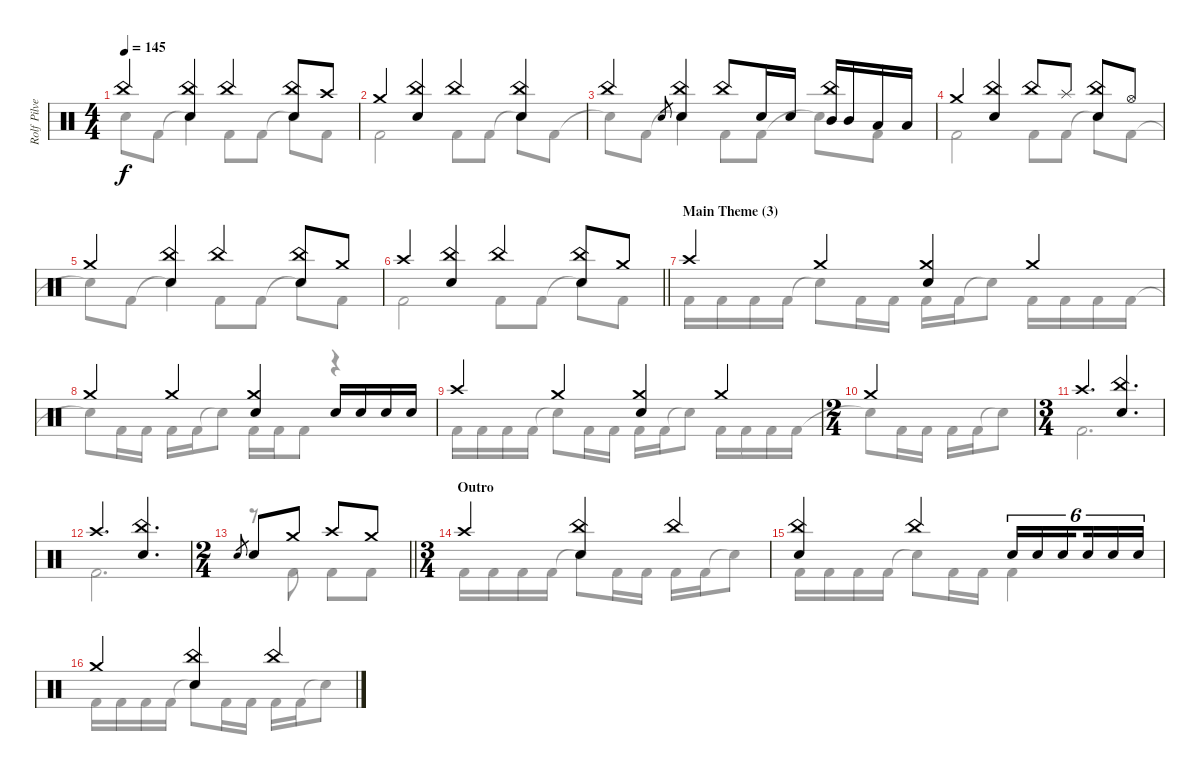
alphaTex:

\track ("Rolf Pilve - drums" "Rolf Pilve") {instrument percussion}
\staff {score}
\articulation defaults
\voice
\ts (4 4)
\tempo 145
\clef neutral
\ks aminor "China (hit)".4{dy f}
("China (hit)" "Electric Snare (hit)").4 "China (hit)".4 ("China (hit)" "Electric Snare (hit)").8 "Crash high (hit)".8 |
"Crash medium (hit)".4 ("China (hit)" "Electric Snare (hit)").4 "China (hit)".4 ("China (hit)" "Electric Snare (hit)").4 |
"China (hit)".4 "Electric Snare (hit)".8{gr} ("Electric Snare (hit)" "China (hit)").4 "China (hit)".8 "Electric Snare (hit)".16 "Electric Snare (hit)".16 ("Mid Tom (hit)" "China (hit)").16 "Mid Tom (hit)".16 "Low Tom (hit)".16 "Low Tom (hit)".16 |
"Crash medium (hit)".4 ("Electric Snare (hit)" "China (hit)").4 "China (hit)".8 "Splash (hit)".8 ("Electric Snare (hit)" "China (hit)").8 "Hi-Hat (open)".8 |
"Crash medium (hit)".4 ("China (hit)" "Electric Snare (hit)").4 "China (hit)".4 ("China (hit)" "Electric Snare (hit)").8 "Crash medium (hit)".8 |
\barLineRight lightlight "Crash high (hit)".4
("China (hit)" "Electric Snare (hit)").4 "China (hit)".4 ("China (hit)" "Electric Snare (hit)").8 "Crash medium (hit)".8 |
\section ("" "Main Theme (3)")
"Crash high (hit)".4 "Crash medium (hit)".4 ("Crash medium (hit)" "Electric Snare (hit)").4 "Crash medium (hit)".4 |
"Crash medium (hit)".4 "Crash medium (hit)".4 ("Crash medium (hit)" "Electric Snare (hit)").4 "Electric Snare (hit)".16 "Electric Snare (hit)".16 "Electric Snare (hit)".16 "Electric Snare (hit)".16 |
"Crash high (hit)".4 "Crash medium (hit)".4 ("Crash medium (hit)" "Electric Snare (hit)").4 "Crash medium (hit)".4 |
\ts (2 4)
"Crash medium (hit)".2 |
\ts (3 4)
"Crash high (hit)".4{d} ("China (hit)" "Electric Snare (hit)").4{d} |
"Crash high (hit)".4{d} ("China (hit)" "Electric Snare (hit)").4{d} |
\ts (2 4)
\barLineRight lightlight "Electric Snare (hit)".8{gr} "Electric Snare (hit)".8 "Crash medium (hit)".8 "Crash high (hit)".8 "Crash medium (hit)".8
|
\ts (3 4)
\section ("" "Outro")
"Crash high (hit)".4 ("China (hit)" "Electric Snare (hit)").4 "China (hit)".4 |
("China (hit)" "Electric Snare (hit)").4 "China (hit)".4 "Electric Snare (hit)".16{tu (6 4)} "Electric Snare (hit)".16{tu (6 4)} "Electric Snare (hit)".16{tu (6 4) beam splitsecondary} "Electric Snare (hit)".16{tu (6 4)} "Electric Snare (hit)".16{tu (6 4)} "Electric Snare (hit)".16{tu (6 4)} |
"Crash medium (hit)".4 ("China (hit)" "Electric Snare (hit)").4 "China (hit)".4
\voice
\clef neutral
\ottava regular
\simile none
\ks aminor "Snare (hit)"{t}.8{dy f} "Kick (hit) 2".8 "Snare (hit)"{t}.4 "Kick (hit) 2".8 "Kick (hit) 2".8 "Snare (hit)"{t}.8 "Kick (hit) 2".8
|
"Kick (hit) 2".2 "Kick (hit) 2".8 "Kick (hit) 2".8 "Snare (hit)"{t}.8 "Kick (hit) 2".8 |
"Snare (hit)"{t}.8 "Kick (hit) 2".8 "Snare (hit)"{t}.4 "Kick (hit) 2".8 "Kick (hit) 2".8 "Snare (hit)"{t}.8 "Kick (hit) 2".8 |
"Kick (hit) 2".2 "Kick (hit) 2".8 "Kick (hit) 2".8 "Snare (hit)"{t}.8 "Kick (hit) 2".8 |
"Snare (hit)"{t}.8 "Kick (hit) 2".8 "Snare (hit)"{t}.4 "Kick (hit) 2".8 "Kick (hit) 2".8 "Snare (hit)"{t}.8 "Kick (hit) 2".8 |
\barLineRight lightlight "Kick (hit) 2".2 "Kick (hit) 2".8 "Kick (hit) 2".8 "Snare (hit)"{t}.8 "Kick (hit) 2".8
|
"Kick (hit) 2".16 "Kick (hit) 2".16 "Kick (hit) 2".16 "Kick (hit) 2".16 "Snare (hit)"{t}.8 "Kick (hit) 2".16 "Kick (hit) 2".16 "Kick (hit) 2".16 "Kick (hit) 2".16 "Snare (hit)"{t}.8 "Kick (hit) 2".16 "Kick (hit) 2".16 "Kick (hit) 2".16 "Kick (hit) 2".16 |
"Snare (hit)"{t}.8 "Kick (hit) 2".16 "Kick (hit) 2".16 "Kick (hit) 2".16 "Kick (hit) 2".16 "Snare (hit)"{t}.8 "Kick (hit) 2".16 "Kick (hit) 2".16 "Kick (hit) 2".8 r.4 |
"Kick (hit) 2".16 "Kick (hit) 2".16 "Kick (hit) 2".16 "Kick (hit) 2".16 "Snare (hit)"{t}.8 "Kick (hit) 2".16 "Kick (hit) 2".16 "Kick (hit) 2".16 "Kick (hit) 2".16 "Snare (hit)"{t}.8 "Kick (hit) 2".16 "Kick (hit) 2".16 "Kick (hit) 2".16 "Kick (hit) 2".16 |
"Snare (hit)"{t}.8 "Kick (hit) 2".16 "Kick (hit) 2".16 "Kick (hit) 2".16 "Kick (hit) 2".16 "Snare (hit)"{t}.8 |
"Kick (hit) 2".2{d} |
"Kick (hit) 2".2{d} |
\barLineRight lightlight
r.8 "Kick (hit) 2".8 "Kick (hit) 2".8 "Kick (hit) 2".8 |
"Kick (hit) 2".16 "Kick (hit) 2".16 "Kick (hit) 2".16 "Kick (hit) 2".16 "Snare (hit)"{t}.8 "Kick (hit) 2".16 "Kick (hit) 2".16 "Kick (hit) 2".16 "Kick (hit) 2".16 "Snare (hit)"{t}.8 |
"Kick (hit) 2".16 "Kick (hit) 2".16 "Kick (hit) 2".16 "Kick (hit) 2".16 "Snare (hit)"{t}.8 "Kick (hit) 2".16 "Kick (hit) 2".16 "Kick (hit) 2".4 |
"Kick (hit) 2".16 "Kick (hit) 2".16 "Kick (hit) 2".16 "Kick (hit) 2".16 "Snare (hit)"{t}.8 "Kick (hit) 2".16 "Kick (hit) 2".16 "Kick (hit) 2".16 "Kick (hit) 2".16 "Snare (hit)"{t}.8
